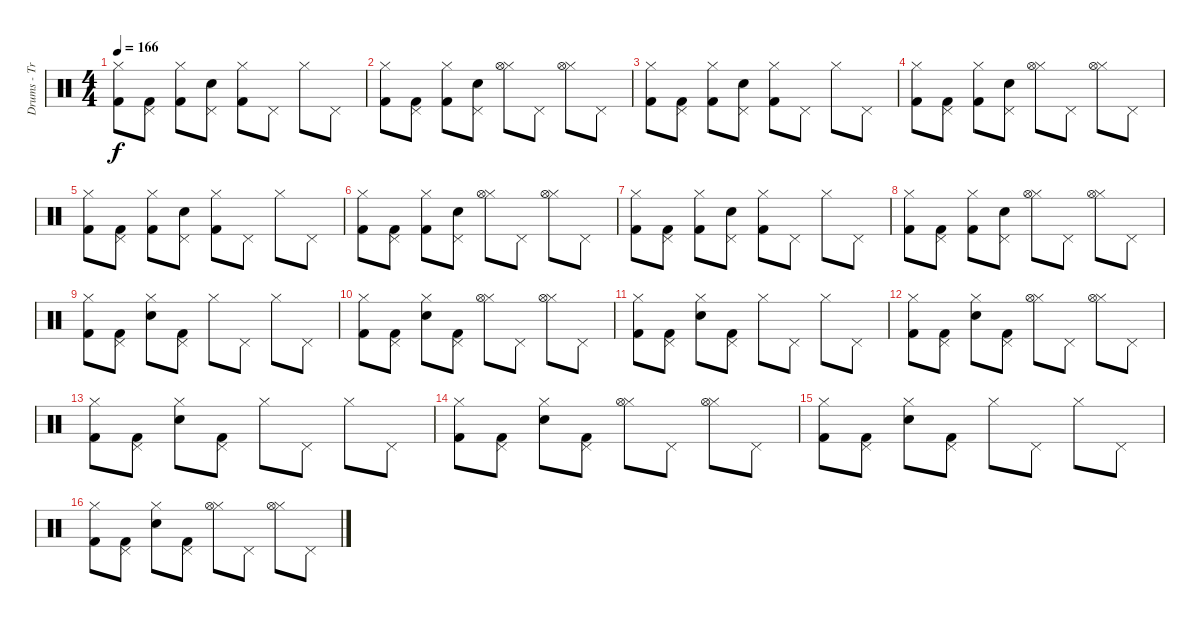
\track ("Drums - Travis Barker" "Drums - Tr") {instrument percussion}
\staff {score}
\articulation defaults
\ts (4 4)
\tempo 166
\clef neutral
\ks c
("Hi-Hat (closed)" "Kick (hit) 2").8{dy f} ("Pedal Hi-Hat (hit)" "Kick (hit) 2").8 ("Hi-Hat (closed)" "Kick (hit) 2").8 ("Pedal Hi-Hat (hit)" "Electric Snare (hit)").8 ("Hi-Hat (closed)" "Kick (hit) 2").8 "Pedal Hi-Hat (hit)".8 "Hi-Hat (closed)".8 "Pedal Hi-Hat (hit)".8 |
("Hi-Hat (closed)" "Kick (hit) 2").8 ("Pedal Hi-Hat (hit)" "Kick (hit) 2").8 ("Hi-Hat (closed)" "Kick (hit) 2").8 ("Pedal Hi-Hat (hit)" "Electric Snare (hit)").8 ("Hi-Hat (closed)" "Hi-Hat (open)").8 "Pedal Hi-Hat (hit)".8 ("Hi-Hat (closed)" "Hi-Hat (open)").8 "Pedal Hi-Hat (hit)".8 |
("Hi-Hat (closed)" "Kick (hit) 2").8 ("Pedal Hi-Hat (hit)" "Kick (hit) 2").8 ("Hi-Hat (closed)" "Kick (hit) 2").8 ("Pedal Hi-Hat (hit)" "Electric Snare (hit)").8 ("Hi-Hat (closed)" "Kick (hit) 2").8 "Pedal Hi-Hat (hit)".8 "Hi-Hat (closed)".8 "Pedal Hi-Hat (hit)".8 |
("Hi-Hat (closed)" "Kick (hit) 2").8 ("Pedal Hi-Hat (hit)" "Kick (hit) 2").8 ("Hi-Hat (closed)" "Kick (hit) 2").8 ("Pedal Hi-Hat (hit)" "Electric Snare (hit)").8 ("Hi-Hat (closed)" "Hi-Hat (open)").8 "Pedal Hi-Hat (hit)".8 ("Hi-Hat (closed)" "Hi-Hat (open)").8 "Pedal Hi-Hat (hit)".8 |
("Hi-Hat (closed)" "Kick (hit) 2").8 ("Pedal Hi-Hat (hit)" "Kick (hit) 2").8 ("Hi-Hat (closed)" "Kick (hit) 2").8 ("Pedal Hi-Hat (hit)" "Electric Snare (hit)").8 ("Hi-Hat (closed)" "Kick (hit) 2").8 "Pedal Hi-Hat (hit)".8 "Hi-Hat (closed)".8 "Pedal Hi-Hat (hit)".8 |
("Hi-Hat (closed)" "Kick (hit) 2").8 ("Pedal Hi-Hat (hit)" "Kick (hit) 2").8 ("Hi-Hat (closed)" "Kick (hit) 2").8 ("Pedal Hi-Hat (hit)" "Electric Snare (hit)").8 ("Hi-Hat (closed)" "Hi-Hat (open)").8 "Pedal Hi-Hat (hit)".8 ("Hi-Hat (closed)" "Hi-Hat (open)").8 "Pedal Hi-Hat (hit)".8 |
("Hi-Hat (closed)" "Kick (hit) 2").8 ("Pedal Hi-Hat (hit)" "Kick (hit) 2").8 ("Hi-Hat (closed)" "Kick (hit) 2").8 ("Pedal Hi-Hat (hit)" "Electric Snare (hit)").8 ("Hi-Hat (closed)" "Kick (hit) 2").8 "Pedal Hi-Hat (hit)".8 "Hi-Hat (closed)".8 "Pedal Hi-Hat (hit)".8 |
("Hi-Hat (closed)" "Kick (hit) 2").8 ("Pedal Hi-Hat (hit)" "Kick (hit) 2").8 ("Hi-Hat (closed)" "Kick (hit) 2").8 ("Pedal Hi-Hat (hit)" "Electric Snare (hit)").8 ("Hi-Hat (closed)" "Hi-Hat (open)").8 "Pedal Hi-Hat (hit)".8 ("Hi-Hat (closed)" "Hi-Hat (open)").8 "Pedal Hi-Hat (hit)".8 |
("Hi-Hat (closed)" "Kick (hit) 2").8 ("Pedal Hi-Hat (hit)" "Kick (hit) 2").8 ("Hi-Hat (closed)" "Electric Snare (hit)").8 ("Pedal Hi-Hat (hit)" "Kick (hit) 2").8 "Hi-Hat (closed)".8 "Pedal Hi-Hat (hit)".8 "Hi-Hat (closed)".8 "Pedal Hi-Hat (hit)".8 |
("Hi-Hat (closed)" "Kick (hit) 2").8 ("Pedal Hi-Hat (hit)" "Kick (hit) 2").8 ("Hi-Hat (closed)" "Electric Snare (hit)").8 ("Pedal Hi-Hat (hit)" "Kick (hit) 2").8 ("Hi-Hat (closed)" "Hi-Hat (open)").8 "Pedal Hi-Hat (hit)".8 ("Hi-Hat (closed)" "Hi-Hat (open)").8 "Pedal Hi-Hat (hit)".8 |
("Hi-Hat (closed)" "Kick (hit) 2").8 ("Pedal Hi-Hat (hit)" "Kick (hit) 2").8 ("Hi-Hat (closed)" "Electric Snare (hit)").8 ("Pedal Hi-Hat (hit)" "Kick (hit) 2").8 "Hi-Hat (closed)".8 "Pedal Hi-Hat (hit)".8 "Hi-Hat (closed)".8 "Pedal Hi-Hat (hit)".8 |
("Hi-Hat (closed)" "Kick (hit) 2").8 ("Pedal Hi-Hat (hit)" "Kick (hit) 2").8 ("Hi-Hat (closed)" "Electric Snare (hit)").8 ("Pedal Hi-Hat (hit)" "Kick (hit) 2").8 ("Hi-Hat (closed)" "Hi-Hat (open)").8 "Pedal Hi-Hat (hit)".8 ("Hi-Hat (closed)" "Hi-Hat (open)").8 "Pedal Hi-Hat (hit)".8 |
("Hi-Hat (closed)" "Kick (hit) 2").8 ("Pedal Hi-Hat (hit)" "Kick (hit) 2").8 ("Hi-Hat (closed)" "Electric Snare (hit)").8 ("Pedal Hi-Hat (hit)" "Kick (hit) 2").8 "Hi-Hat (closed)".8 "Pedal Hi-Hat (hit)".8 "Hi-Hat (closed)".8 "Pedal Hi-Hat (hit)".8 |
("Hi-Hat (closed)" "Kick (hit) 2").8 ("Pedal Hi-Hat (hit)" "Kick (hit) 2").8 ("Hi-Hat (closed)" "Electric Snare (hit)").8 ("Pedal Hi-Hat (hit)" "Kick (hit) 2").8 ("Hi-Hat (closed)" "Hi-Hat (open)").8 "Pedal Hi-Hat (hit)".8 ("Hi-Hat (closed)" "Hi-Hat (open)").8 "Pedal Hi-Hat (hit)".8 |
("Hi-Hat (closed)" "Kick (hit) 2").8 ("Pedal Hi-Hat (hit)" "Kick (hit) 2").8 ("Hi-Hat (closed)" "Electric Snare (hit)").8 ("Pedal Hi-Hat (hit)" "Kick (hit) 2").8 "Hi-Hat (closed)".8 "Pedal Hi-Hat (hit)".8 "Hi-Hat (closed)".8 "Pedal Hi-Hat (hit)".8 |
("Hi-Hat (closed)" "Kick (hit) 2").8 ("Pedal Hi-Hat (hit)" "Kick (hit) 2").8 ("Hi-Hat (closed)" "Electric Snare (hit)").8 ("Pedal Hi-Hat (hit)" "Kick (hit) 2").8 ("Hi-Hat (closed)" "Hi-Hat (open)").8 "Pedal Hi-Hat (hit)".8 ("Hi-Hat (closed)" "Hi-Hat (open)").8 "Pedal Hi-Hat (hit)".8
